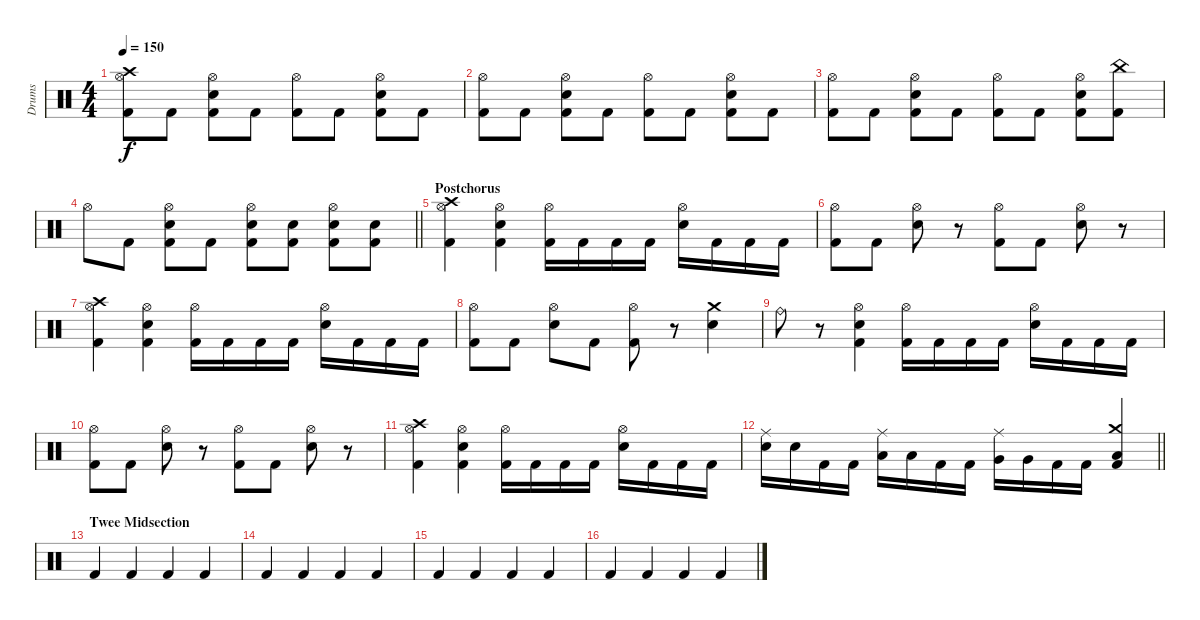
\track ("Drums" "Drums") {instrument percussion}
\staff {score}
\articulation defaults
\ts (4 4)
\tempo 150
\clef neutral
\ks c
("Crash high (hit)" "Hi-Hat (open)" "Kick (hit) 2").8{dy f} "Kick (hit) 2".8 ("Hi-Hat (open)" "Snare (hit) 2" "Kick (hit) 2").8 "Kick (hit) 2".8 ("Hi-Hat (open)" "Kick (hit) 2").8 "Kick (hit) 2".8 ("Hi-Hat (open)" "Snare (hit) 2" "Kick (hit) 2").8 "Kick (hit) 2".8 |
("Hi-Hat (open)" "Kick (hit) 2").8 "Kick (hit) 2".8 ("Hi-Hat (open)" "Snare (hit) 2" "Kick (hit) 2").8 "Kick (hit) 2".8 ("Hi-Hat (open)" "Kick (hit) 2").8 "Kick (hit) 2".8 ("Hi-Hat (open)" "Snare (hit) 2" "Kick (hit) 2").8 "Kick (hit) 2".8 |
("Hi-Hat (open)" "Kick (hit) 2").8 "Kick (hit) 2".8 ("Hi-Hat (open)" "Snare (hit) 2" "Kick (hit) 2").8 "Kick (hit) 2".8 ("Hi-Hat (open)" "Kick (hit) 2").8 "Kick (hit) 2".8 ("Hi-Hat (open)" "Snare (hit) 2" "Kick (hit) 2").8 ("China (hit)" "Kick (hit) 2").8 |
\barLineRight lightlight "Hi-Hat (open)".8 "Kick (hit) 2".8
("Hi-Hat (open)" "Snare (hit) 2" "Kick (hit) 2").8 "Kick (hit) 2".8 ("Hi-Hat (open)" "Snare (hit) 2" "Kick (hit) 2").8 ("Snare (hit) 2" "Kick (hit) 2").8 ("Hi-Hat (open)" "Snare (hit) 2" "Kick (hit) 2").8 ("Snare (hit) 2" "Kick (hit) 2").8 |
\section ("" "Postchorus")
("Crash high (hit)" "Hi-Hat (open)" "Kick (hit) 2").4 ("Hi-Hat (open)" "Snare (hit) 2" "Kick (hit) 2").4 ("Hi-Hat (open)" "Kick (hit) 2").16 "Kick (hit) 2".16 "Kick (hit) 2".16 "Kick (hit) 2".16 ("Hi-Hat (open)" "Snare (hit) 2").16 "Kick (hit) 2".16 "Kick (hit) 2".16 "Kick (hit) 2".16 |
("Hi-Hat (open)" "Kick (hit) 2").8 "Kick (hit) 2".8 ("Hi-Hat (open)" "Snare (hit) 2").8 r.8 ("Hi-Hat (open)" "Kick (hit) 2").8 "Kick (hit) 2".8 ("Hi-Hat (open)" "Snare (hit) 2").8 r.8 |
("Crash high (hit)" "Hi-Hat (open)" "Kick (hit) 2").4 ("Hi-Hat (open)" "Snare (hit) 2" "Kick (hit) 2").4 ("Hi-Hat (open)" "Kick (hit) 2").16 "Kick (hit) 2".16 "Kick (hit) 2".16 "Kick (hit) 2".16 ("Hi-Hat (open)" "Snare (hit) 2").16 "Kick (hit) 2".16 "Kick (hit) 2".16 "Kick (hit) 2".16 |
("Hi-Hat (open)" "Kick (hit) 2").8 "Kick (hit) 2".8 ("Hi-Hat (open)" "Snare (hit) 2").8 "Kick (hit) 2".8 ("Hi-Hat (open)" "Kick (hit) 2").8 r.8 ("Crash medium (hit)" "Snare (hit) 2").4 |
"Ride (bell)".8 r.8 ("Hi-Hat (open)" "Snare (hit) 2" "Kick (hit) 2").4 ("Hi-Hat (open)" "Kick (hit) 2").16 "Kick (hit) 2".16 "Kick (hit) 2".16 "Kick (hit) 2".16 ("Hi-Hat (open)" "Snare (hit) 2").16 "Kick (hit) 2".16 "Kick (hit) 2".16 "Kick (hit) 2".16 |
("Hi-Hat (open)" "Kick (hit) 2").8 "Kick (hit) 2".8 ("Hi-Hat (open)" "Snare (hit) 2").8 r.8 ("Hi-Hat (open)" "Kick (hit) 2").8 "Kick (hit) 2".8 ("Hi-Hat (open)" "Snare (hit) 2").8 r.8 |
("Crash high (hit)" "Hi-Hat (open)" "Kick (hit) 2").4 ("Hi-Hat (open)" "Snare (hit) 2" "Kick (hit) 2").4 ("Hi-Hat (open)" "Kick (hit) 2").16 "Kick (hit) 2".16 "Kick (hit) 2".16 "Kick (hit) 2".16 ("Hi-Hat (open)" "Snare (hit) 2").16 "Kick (hit) 2".16 "Kick (hit) 2".16 "Kick (hit) 2".16 |
\barLineRight lightlight
("Ride (middle)" "Snare (hit) 2").16 "Snare (hit) 2".16 "Kick (hit) 2".16 "Kick (hit) 2".16 ("Ride (middle)" "Low Tom (hit)").16 "Low Tom (hit)".16 "Kick (hit) 2".16 "Kick (hit) 2".16 ("Ride (middle)" "Very Low Tom (hit)").16 "Very Low Tom (hit)".16 "Kick (hit) 2".16 "Kick (hit) 2".16 ("Crash medium (hit)" "Low Floor Tom (hit)" "Kick (hit) 2").4 |
\section ("" "Twee Midsection")
"Kick (hit) 2".4 "Kick (hit) 2".4 "Kick (hit) 2".4 "Kick (hit) 2".4 |
"Kick (hit) 2".4 "Kick (hit) 2".4 "Kick (hit) 2".4 "Kick (hit) 2".4 |
"Kick (hit) 2".4 "Kick (hit) 2".4 "Kick (hit) 2".4 "Kick (hit) 2".4 |
"Kick (hit) 2".4 "Kick (hit) 2".4 "Kick (hit) 2".4 "Kick (hit) 2".4
